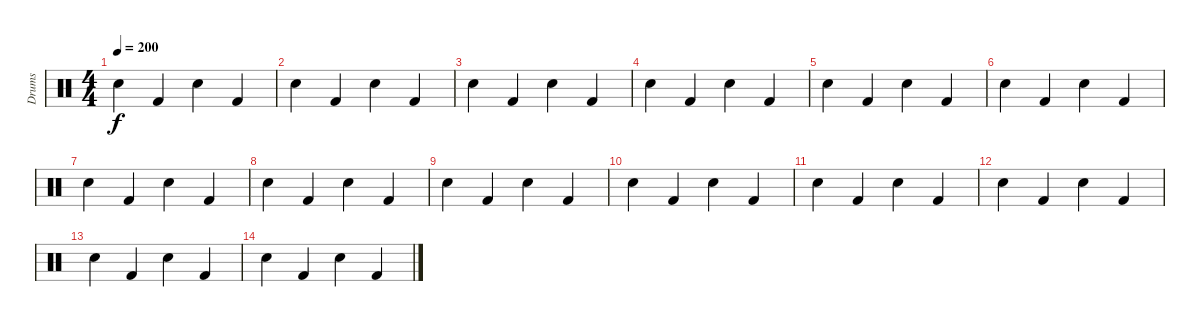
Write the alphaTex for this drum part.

\track ("Drums" "Drums") {instrument percussion}
\staff {score}
\articulation defaults
\ts (4 4)
\tempo 200
\clef neutral
\ks c "Snare (hit) 2".4{dy f} "Kick (hit) 2".4 "Snare (hit) 2".4 "Kick (hit) 2".4
|
"Snare (hit) 2".4 "Kick (hit) 2".4 "Snare (hit) 2".4 "Kick (hit) 2".4 |
"Snare (hit) 2".4 "Kick (hit) 2".4 "Snare (hit) 2".4 "Kick (hit) 2".4 |
"Snare (hit) 2".4 "Kick (hit) 2".4 "Snare (hit) 2".4 "Kick (hit) 2".4 |
"Snare (hit) 2".4 "Kick (hit) 2".4 "Snare (hit) 2".4 "Kick (hit) 2".4 |
"Snare (hit) 2".4 "Kick (hit) 2".4 "Snare (hit) 2".4 "Kick (hit) 2".4 |
"Snare (hit) 2".4 "Kick (hit) 2".4 "Snare (hit) 2".4 "Kick (hit) 2".4 |
"Snare (hit) 2".4 "Kick (hit) 2".4 "Snare (hit) 2".4 "Kick (hit) 2".4 |
"Snare (hit) 2".4 "Kick (hit) 2".4 "Snare (hit) 2".4 "Kick (hit) 2".4 |
"Snare (hit) 2".4 "Kick (hit) 2".4 "Snare (hit) 2".4 "Kick (hit) 2".4 |
"Snare (hit) 2".4 "Kick (hit) 2".4 "Snare (hit) 2".4 "Kick (hit) 2".4 |
"Snare (hit) 2".4 "Kick (hit) 2".4 "Snare (hit) 2".4 "Kick (hit) 2".4 |
"Snare (hit) 2".4 "Kick (hit) 2".4 "Snare (hit) 2".4 "Kick (hit) 2".4 |
"Snare (hit) 2".4 "Kick (hit) 2".4 "Snare (hit) 2".4 "Kick (hit) 2".4
